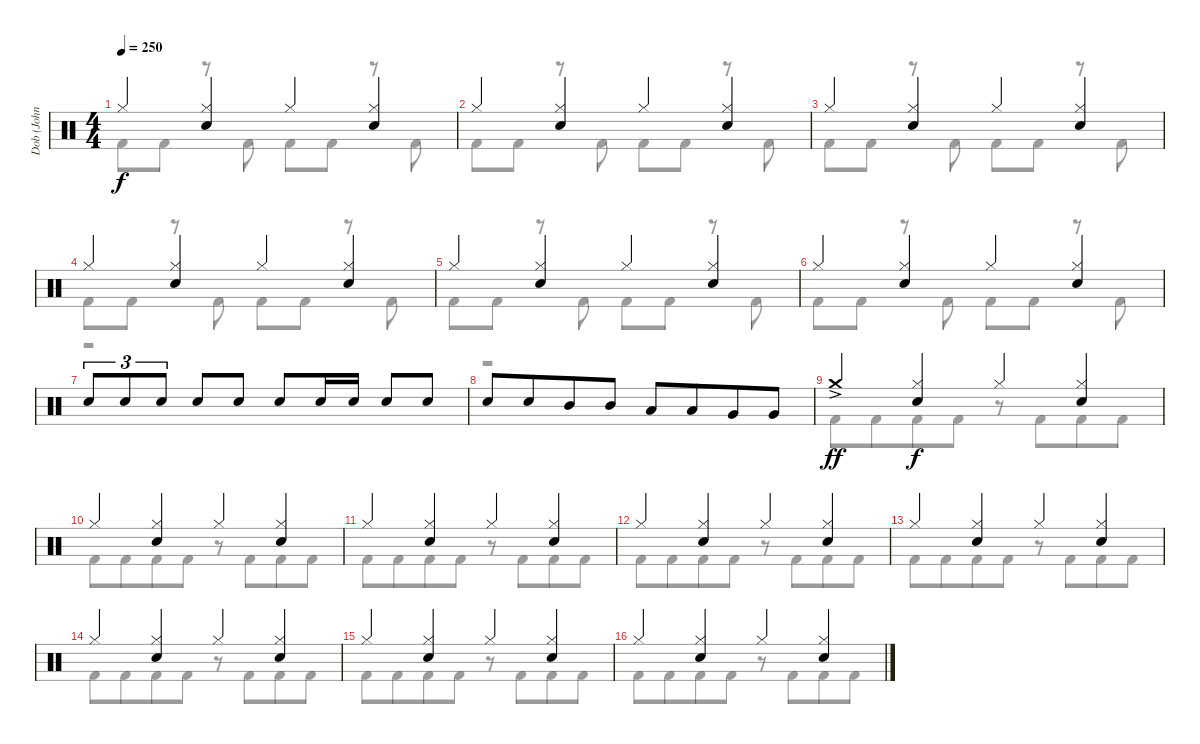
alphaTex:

\track ("Dob (John Macaluso)" "Dob (John ") {instrument percussion}
\staff {score}
\articulation defaults
\voice
\ts (4 4)
\tempo 250
\clef neutral
\ks c "Hi-Hat (closed)".4{dy f}
("Hi-Hat (closed)" "Electric Snare (hit)").4 "Hi-Hat (closed)".4 ("Hi-Hat (closed)" "Electric Snare (hit)").4 |
"Hi-Hat (closed)".4 ("Hi-Hat (closed)" "Electric Snare (hit)").4 "Hi-Hat (closed)".4 ("Hi-Hat (closed)" "Electric Snare (hit)").4 |
"Hi-Hat (closed)".4 ("Hi-Hat (closed)" "Electric Snare (hit)").4 "Hi-Hat (closed)".4 ("Hi-Hat (closed)" "Electric Snare (hit)").4 |
"Hi-Hat (closed)".4 ("Hi-Hat (closed)" "Electric Snare (hit)").4 "Hi-Hat (closed)".4 ("Hi-Hat (closed)" "Electric Snare (hit)").4 |
"Hi-Hat (closed)".4 ("Hi-Hat (closed)" "Electric Snare (hit)").4 "Hi-Hat (closed)".4 ("Hi-Hat (closed)" "Electric Snare (hit)").4 |
"Hi-Hat (closed)".4 ("Hi-Hat (closed)" "Electric Snare (hit)").4 "Hi-Hat (closed)".4 ("Hi-Hat (closed)" "Electric Snare (hit)").4 |
"Electric Snare (hit)".8{tu (3 2)} "Electric Snare (hit)".8{tu (3 2)} "Electric Snare (hit)".8{tu (3 2)} "Electric Snare (hit)".8 "Electric Snare (hit)".8 "Electric Snare (hit)".8 "Electric Snare (hit)".16 "Electric Snare (hit)".16 "Electric Snare (hit)".8 "Electric Snare (hit)".8 |
"Electric Snare (hit)".8 "Electric Snare (hit)".8{beam merge} "Mid Tom (hit)".8 "Mid Tom (hit)".8 "Low Tom (hit)".8 "Low Tom (hit)".8{beam merge} "Very Low Tom (hit)".8 "Very Low Tom (hit)".8 |
"Crash medium (hit)"{ac}.4{dy ff} ("Hi-Hat (closed)" "Electric Snare (hit)").4{dy f} "Hi-Hat (closed)".4 ("Hi-Hat (closed)" "Electric Snare (hit)").4 |
"Hi-Hat (closed)".4 ("Hi-Hat (closed)" "Electric Snare (hit)").4 "Hi-Hat (closed)".4 ("Hi-Hat (closed)" "Electric Snare (hit)").4 |
"Hi-Hat (closed)".4 ("Hi-Hat (closed)" "Electric Snare (hit)").4 "Hi-Hat (closed)".4 ("Hi-Hat (closed)" "Electric Snare (hit)").4 |
"Hi-Hat (closed)".4 ("Hi-Hat (closed)" "Electric Snare (hit)").4 "Hi-Hat (closed)".4 ("Hi-Hat (closed)" "Electric Snare (hit)").4 |
"Hi-Hat (closed)".4 ("Hi-Hat (closed)" "Electric Snare (hit)").4 "Hi-Hat (closed)".4 ("Hi-Hat (closed)" "Electric Snare (hit)").4 |
"Hi-Hat (closed)".4 ("Hi-Hat (closed)" "Electric Snare (hit)").4 "Hi-Hat (closed)".4 ("Hi-Hat (closed)" "Electric Snare (hit)").4 |
"Hi-Hat (closed)".4 ("Hi-Hat (closed)" "Electric Snare (hit)").4 "Hi-Hat (closed)".4 ("Hi-Hat (closed)" "Electric Snare (hit)").4 |
"Hi-Hat (closed)".4 ("Hi-Hat (closed)" "Electric Snare (hit)").4 "Hi-Hat (closed)".4 ("Hi-Hat (closed)" "Electric Snare (hit)").4
\voice
\clef neutral
\ottava regular
\simile none
\ks c "Kick (hit) 2".8{dy f} "Kick (hit) 2".8
r.8 "Kick (hit) 2".8 "Kick (hit) 2".8 "Kick (hit) 2".8 r.8 "Kick (hit) 2".8 |
"Kick (hit) 2".8 "Kick (hit) 2".8 r.8 "Kick (hit) 2".8 "Kick (hit) 2".8 "Kick (hit) 2".8 r.8 "Kick (hit) 2".8 |
"Kick (hit) 2".8 "Kick (hit) 2".8 r.8 "Kick (hit) 2".8 "Kick (hit) 2".8 "Kick (hit) 2".8 r.8 "Kick (hit) 2".8 |
"Kick (hit) 2".8 "Kick (hit) 2".8 r.8 "Kick (hit) 2".8 "Kick (hit) 2".8 "Kick (hit) 2".8 r.8 "Kick (hit) 2".8 |
"Kick (hit) 2".8 "Kick (hit) 2".8 r.8 "Kick (hit) 2".8 "Kick (hit) 2".8 "Kick (hit) 2".8 r.8 "Kick (hit) 2".8 |
"Kick (hit) 2".8 "Kick (hit) 2".8 r.8 "Kick (hit) 2".8 "Kick (hit) 2".8 "Kick (hit) 2".8 r.8 "Kick (hit) 2".8 |
r.1 |
r.1 |
"Kick (hit) 2".8 "Kick (hit) 2".8{beam merge} "Kick (hit) 2".8 "Kick (hit) 2".8 r.8 "Kick (hit) 2".8{beam merge} "Kick (hit) 2".8 "Kick (hit) 2".8 |
"Kick (hit) 2".8 "Kick (hit) 2".8{beam merge} "Kick (hit) 2".8 "Kick (hit) 2".8 r.8 "Kick (hit) 2".8{beam merge} "Kick (hit) 2".8 "Kick (hit) 2".8 |
"Kick (hit) 2".8 "Kick (hit) 2".8{beam merge} "Kick (hit) 2".8 "Kick (hit) 2".8 r.8 "Kick (hit) 2".8{beam merge} "Kick (hit) 2".8 "Kick (hit) 2".8 |
"Kick (hit) 2".8 "Kick (hit) 2".8{beam merge} "Kick (hit) 2".8 "Kick (hit) 2".8 r.8 "Kick (hit) 2".8{beam merge} "Kick (hit) 2".8 "Kick (hit) 2".8 |
"Kick (hit) 2".8 "Kick (hit) 2".8{beam merge} "Kick (hit) 2".8 "Kick (hit) 2".8 r.8 "Kick (hit) 2".8{beam merge} "Kick (hit) 2".8 "Kick (hit) 2".8 |
"Kick (hit) 2".8 "Kick (hit) 2".8{beam merge} "Kick (hit) 2".8 "Kick (hit) 2".8 r.8 "Kick (hit) 2".8{beam merge} "Kick (hit) 2".8 "Kick (hit) 2".8 |
"Kick (hit) 2".8 "Kick (hit) 2".8{beam merge} "Kick (hit) 2".8 "Kick (hit) 2".8 r.8 "Kick (hit) 2".8{beam merge} "Kick (hit) 2".8 "Kick (hit) 2".8 |
"Kick (hit) 2".8 "Kick (hit) 2".8{beam merge} "Kick (hit) 2".8 "Kick (hit) 2".8 r.8 "Kick (hit) 2".8{beam merge} "Kick (hit) 2".8 "Kick (hit) 2".8
